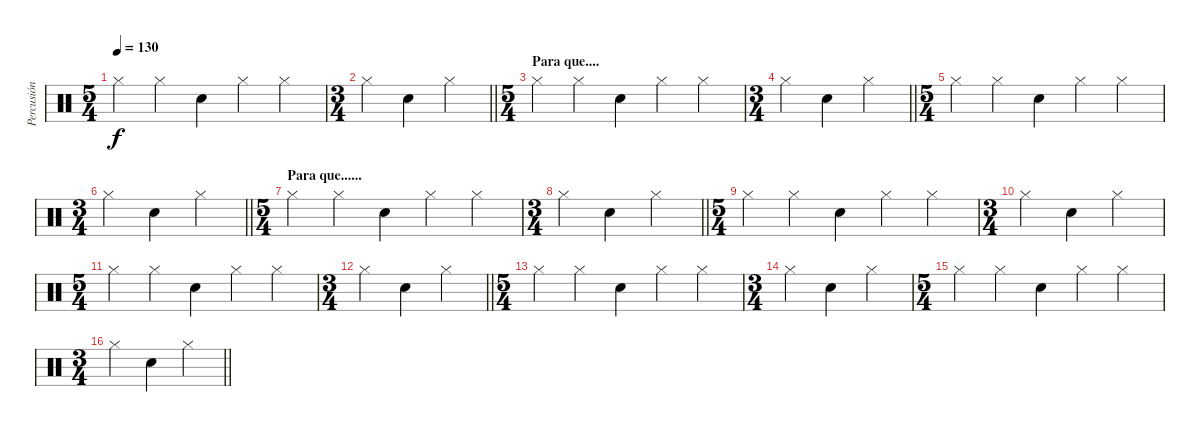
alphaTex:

\track ("Percusión" "Percusión") {instrument percussion}
\staff {score}
\articulation defaults
\ts (5 4)
\tempo 130
\clef neutral
\ks c "Hi-Hat (closed)".4{dy f} "Hi-Hat (closed)".4 "Snare (hit) 2".4 "Hi-Hat (closed)".4 "Hi-Hat (closed)".4
|
\ts (3 4)
\barLineRight lightlight "Hi-Hat (closed)".4 "Snare (hit) 2".4 "Hi-Hat (closed)".4
|
\ts (5 4)
\section ("" "Para que....")
"Hi-Hat (closed)".4 "Hi-Hat (closed)".4 "Snare (hit) 2".4 "Hi-Hat (closed)".4 "Hi-Hat (closed)".4 |
\ts (3 4)
\barLineRight lightlight "Hi-Hat (closed)".4 "Snare (hit) 2".4 "Hi-Hat (closed)".4
|
\ts (5 4)
"Hi-Hat (closed)".4 "Hi-Hat (closed)".4 "Snare (hit) 2".4 "Hi-Hat (closed)".4 "Hi-Hat (closed)".4 |
\ts (3 4)
\barLineRight lightlight "Hi-Hat (closed)".4 "Snare (hit) 2".4 "Hi-Hat (closed)".4
|
\ts (5 4)
\section ("" "Para que......")
"Hi-Hat (closed)".4 "Hi-Hat (closed)".4 "Snare (hit) 2".4 "Hi-Hat (closed)".4 "Hi-Hat (closed)".4 |
\ts (3 4)
\barLineRight lightlight "Hi-Hat (closed)".4 "Snare (hit) 2".4 "Hi-Hat (closed)".4
|
\ts (5 4)
"Hi-Hat (closed)".4 "Hi-Hat (closed)".4 "Snare (hit) 2".4 "Hi-Hat (closed)".4 "Hi-Hat (closed)".4 |
\ts (3 4)
"Hi-Hat (closed)".4 "Snare (hit) 2".4 "Hi-Hat (closed)".4 |
\ts (5 4)
"Hi-Hat (closed)".4 "Hi-Hat (closed)".4 "Snare (hit) 2".4 "Hi-Hat (closed)".4 "Hi-Hat (closed)".4 |
\ts (3 4)
\barLineRight lightlight "Hi-Hat (closed)".4 "Snare (hit) 2".4 "Hi-Hat (closed)".4
|
\ts (5 4)
"Hi-Hat (closed)".4 "Hi-Hat (closed)".4 "Snare (hit) 2".4 "Hi-Hat (closed)".4 "Hi-Hat (closed)".4 |
\ts (3 4)
"Hi-Hat (closed)".4 "Snare (hit) 2".4 "Hi-Hat (closed)".4 |
\ts (5 4)
"Hi-Hat (closed)".4 "Hi-Hat (closed)".4 "Snare (hit) 2".4 "Hi-Hat (closed)".4 "Hi-Hat (closed)".4 |
\ts (3 4)
\barLineRight lightlight "Hi-Hat (closed)".4 "Snare (hit) 2".4 "Hi-Hat (closed)".4
